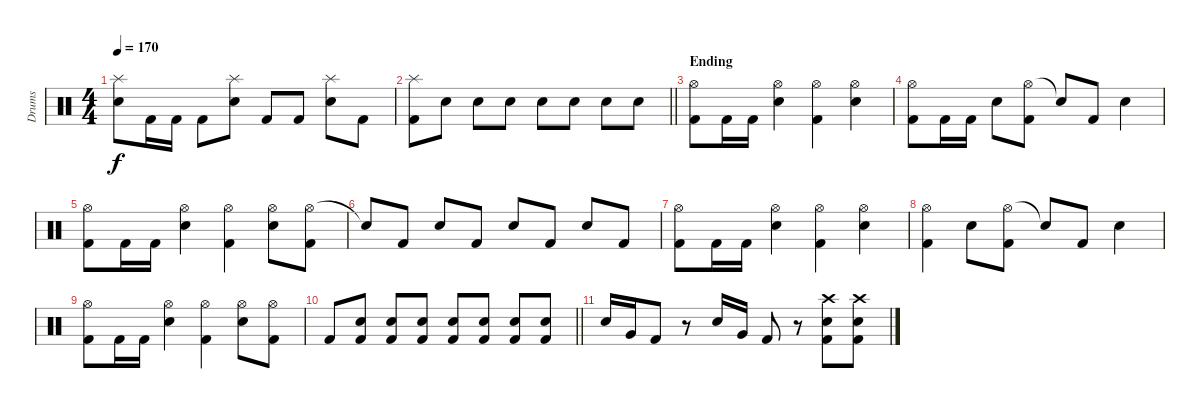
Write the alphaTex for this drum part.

\track ("Drums" "Drums") {instrument percussion}
\staff {score}
\articulation defaults
\ts (4 4)
\tempo 170
\clef neutral
\ks c
("Splash (hit)" "Snare (hit) 2").8{dy f} "Kick (hit) 2".16 "Kick (hit) 2".16 "Kick (hit) 2".8 ("Splash (hit)" "Snare (hit) 2").8 "Kick (hit) 2".8 "Kick (hit) 2".8 ("Splash (hit)" "Snare (hit) 2").8 "Kick (hit) 2".8 |
\barLineRight lightlight
("Splash (hit)" "Kick (hit) 2").8 "Snare (hit) 2".8 "Snare (hit) 2".8 "Snare (hit) 2".8 "Snare (hit) 2".8 "Snare (hit) 2".8 "Snare (hit) 2".8 "Snare (hit) 2".8 |
\section ("" "Ending")
("Hi-Hat (open)" "Kick (hit) 2").8 "Kick (hit) 2".16 "Kick (hit) 2".16 ("Hi-Hat (open)" "Snare (hit) 2").4 ("Hi-Hat (open)" "Kick (hit) 2").4 ("Hi-Hat (open)" "Snare (hit) 2").4 |
("Hi-Hat (open)" "Kick (hit) 2").8 "Kick (hit) 2".16 "Kick (hit) 2".16 "Snare (hit) 2".8 ("Hi-Hat (open)" "Kick (hit) 2").8 "Snare (hit)"{t}.8 "Kick (hit) 2".8 "Snare (hit) 2".4 |
("Hi-Hat (open)" "Kick (hit) 2").8 "Kick (hit) 2".16 "Kick (hit) 2".16 ("Hi-Hat (open)" "Snare (hit) 2").4 ("Hi-Hat (open)" "Kick (hit) 2").4 ("Hi-Hat (open)" "Snare (hit) 2").8 ("Hi-Hat (open)" "Kick (hit) 2").8 |
"Snare (hit)"{t}.8 "Kick (hit) 2".8 "Snare (hit) 2".8 "Kick (hit) 2".8 "Snare (hit) 2".8 "Kick (hit) 2".8 "Snare (hit) 2".8 "Kick (hit) 2".8 |
("Hi-Hat (open)" "Kick (hit) 2").8 "Kick (hit) 2".16 "Kick (hit) 2".16 ("Hi-Hat (open)" "Snare (hit) 2").4 ("Hi-Hat (open)" "Kick (hit) 2").4 ("Hi-Hat (open)" "Snare (hit) 2").4 |
("Hi-Hat (open)" "Kick (hit) 2").4 "Snare (hit) 2".8 ("Hi-Hat (open)" "Kick (hit) 2").8 "Snare (hit)"{t}.8 "Kick (hit) 2".8 "Snare (hit) 2".4 |
("Hi-Hat (open)" "Kick (hit) 2").8 "Kick (hit) 2".16 "Kick (hit) 2".16 ("Hi-Hat (open)" "Snare (hit) 2").4 ("Hi-Hat (open)" "Kick (hit) 2").4 ("Hi-Hat (open)" "Snare (hit) 2").8 ("Hi-Hat (open)" "Kick (hit) 2").8 |
\barLineRight lightlight "Kick (hit) 2".8
("Snare (hit) 2" "Kick (hit) 2").8 ("Snare (hit) 2" "Kick (hit) 2").8 ("Snare (hit) 2" "Kick (hit) 2").8 ("Snare (hit) 2" "Kick (hit) 2").8 ("Snare (hit) 2" "Kick (hit) 2").8 ("Snare (hit) 2" "Kick (hit) 2").8 ("Snare (hit) 2" "Kick (hit) 2").8 |
"Snare (hit) 2".16 "Very Low Tom (hit)".16 "Kick (hit) 2".8 r.8 "Snare (hit) 2".16 "Very Low Tom (hit)".16 "Kick (hit) 2".8 r.8 ("Crash high (hit)" "Snare (hit) 2" "Kick (hit) 2").8 ("Crash high (hit)" "Snare (hit) 2" "Kick (hit) 2").8
